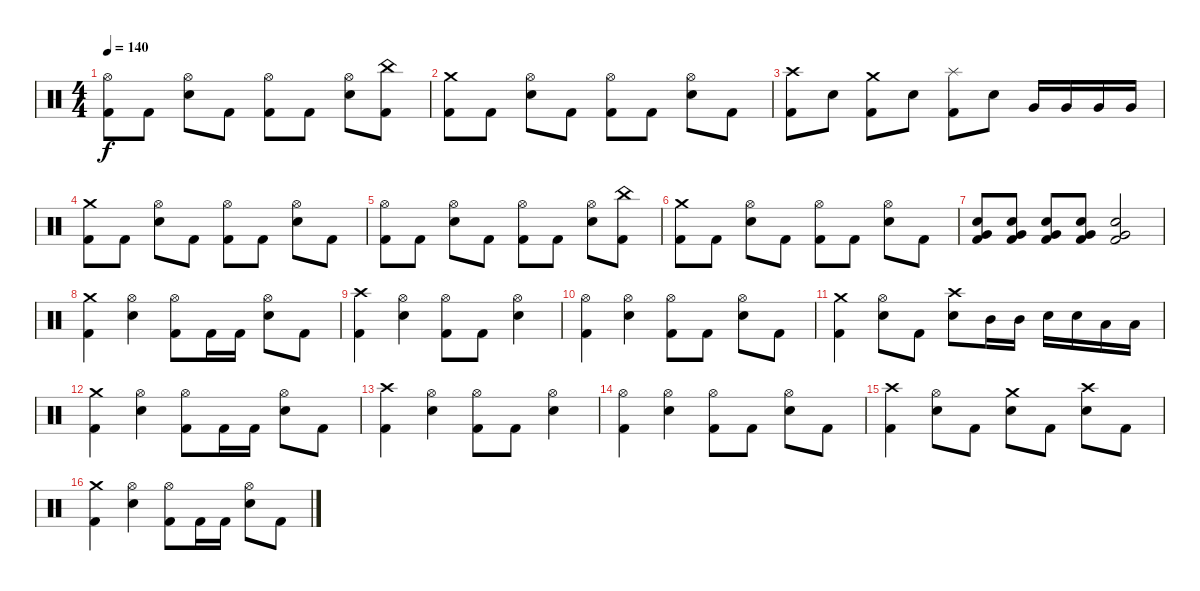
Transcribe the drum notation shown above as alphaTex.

\track "" {instrument percussion}
\staff {score}
\articulation defaults
\ts (4 4)
\tempo 140
\clef neutral
\ks c
("Hi-Hat (open)" "Kick (hit) 2").8{dy f} "Kick (hit) 2".8 ("Hi-Hat (open)" "Electric Snare (hit)").8 "Kick (hit) 2".8 ("Hi-Hat (open)" "Kick (hit) 2").8 "Kick (hit) 2".8 ("Hi-Hat (open)" "Electric Snare (hit)").8 ("China (hit)" "Kick (hit) 2").8 |
("Crash medium (hit)" "Kick (hit) 2").8 "Kick (hit) 2".8 ("Hi-Hat (open)" "Electric Snare (hit)").8 "Kick (hit) 2".8 ("Hi-Hat (open)" "Kick (hit) 2").8 "Kick (hit) 2".8 ("Hi-Hat (open)" "Electric Snare (hit)").8 "Kick (hit) 2".8 |
("Crash high (hit)" "Kick (hit) 2").8 "Electric Snare (hit)".8 ("Crash medium (hit)" "Kick (hit) 2").8 "Electric Snare (hit)".8 ("Splash (hit)" "Kick (hit) 2").8 "Electric Snare (hit)".8 "Very Low Tom (hit)".16 "Very Low Tom (hit)".16 "Very Low Tom (hit)".16 "Very Low Tom (hit)".16 |
("Crash medium (hit)" "Kick (hit) 2").8 "Kick (hit) 2".8 ("Hi-Hat (open)" "Electric Snare (hit)").8 "Kick (hit) 2".8 ("Hi-Hat (open)" "Kick (hit) 2").8 "Kick (hit) 2".8 ("Hi-Hat (open)" "Electric Snare (hit)").8 "Kick (hit) 2".8 |
("Hi-Hat (open)" "Kick (hit) 2").8 "Kick (hit) 2".8 ("Hi-Hat (open)" "Electric Snare (hit)").8 "Kick (hit) 2".8 ("Hi-Hat (open)" "Kick (hit) 2").8 "Kick (hit) 2".8 ("Hi-Hat (open)" "Electric Snare (hit)").8 ("China (hit)" "Kick (hit) 2").8 |
("Crash medium (hit)" "Kick (hit) 2").8 "Kick (hit) 2".8 ("Hi-Hat (open)" "Electric Snare (hit)").8 "Kick (hit) 2".8 ("Hi-Hat (open)" "Kick (hit) 2").8 "Kick (hit) 2".8 ("Hi-Hat (open)" "Electric Snare (hit)").8 "Kick (hit) 2".8 |
("Electric Snare (hit)" "Very Low Tom (hit)" "Kick (hit) 2").8 ("Electric Snare (hit)" "Very Low Tom (hit)" "Kick (hit) 2").8 ("Electric Snare (hit)" "Very Low Tom (hit)" "Kick (hit) 2").8 ("Electric Snare (hit)" "Very Low Tom (hit)" "Kick (hit) 2").8 ("Electric Snare (hit)" "Very Low Tom (hit)" "Kick (hit) 2").2 |
("Crash medium (hit)" "Kick (hit) 2").4 ("Hi-Hat (open)" "Electric Snare (hit)").4 ("Hi-Hat (open)" "Kick (hit) 2").8 "Kick (hit) 2".16 "Kick (hit) 2".16 ("Hi-Hat (open)" "Electric Snare (hit)").8 "Kick (hit) 2".8 |
("Crash high (hit)" "Kick (hit) 2").4 ("Hi-Hat (open)" "Electric Snare (hit)").4 ("Hi-Hat (open)" "Kick (hit) 2").8 "Kick (hit) 2".8 ("Hi-Hat (open)" "Electric Snare (hit)").4 |
("Hi-Hat (open)" "Kick (hit) 2").4 ("Hi-Hat (open)" "Electric Snare (hit)").4 ("Hi-Hat (open)" "Kick (hit) 2").8 "Kick (hit) 2".8 ("Hi-Hat (open)" "Electric Snare (hit)").8 "Kick (hit) 2".8 |
("Crash medium (hit)" "Kick (hit) 2").4 ("Hi-Hat (open)" "Electric Snare (hit)").8 "Kick (hit) 2".8 ("Crash high (hit)" "Electric Snare (hit)").8 "Mid Tom (hit)".16 "Mid Tom (hit)".16 "Electric Snare (hit)".16 "Electric Snare (hit)".16 "Low Tom (hit)".16 "Low Tom (hit)".16 |
("Crash medium (hit)" "Kick (hit) 2").4 ("Hi-Hat (open)" "Electric Snare (hit)").4 ("Hi-Hat (open)" "Kick (hit) 2").8 "Kick (hit) 2".16 "Kick (hit) 2".16 ("Hi-Hat (open)" "Electric Snare (hit)").8 "Kick (hit) 2".8 |
("Crash high (hit)" "Kick (hit) 2").4 ("Hi-Hat (open)" "Electric Snare (hit)").4 ("Hi-Hat (open)" "Kick (hit) 2").8 "Kick (hit) 2".8 ("Hi-Hat (open)" "Electric Snare (hit)").4 |
("Hi-Hat (open)" "Kick (hit) 2").4 ("Hi-Hat (open)" "Electric Snare (hit)").4 ("Hi-Hat (open)" "Kick (hit) 2").8 "Kick (hit) 2".8 ("Hi-Hat (open)" "Electric Snare (hit)").8 "Kick (hit) 2".8 |
("Crash high (hit)" "Kick (hit) 2").4 ("Hi-Hat (open)" "Electric Snare (hit)").8 "Kick (hit) 2".8 ("Crash medium (hit)" "Electric Snare (hit)").8 "Kick (hit) 2".8 ("Crash high (hit)" "Electric Snare (hit)").8 "Kick (hit) 2".8 |
("Crash medium (hit)" "Kick (hit) 2").4 ("Hi-Hat (open)" "Electric Snare (hit)").4 ("Hi-Hat (open)" "Kick (hit) 2").8 "Kick (hit) 2".16 "Kick (hit) 2".16 ("Hi-Hat (open)" "Electric Snare (hit)").8 "Kick (hit) 2".8
